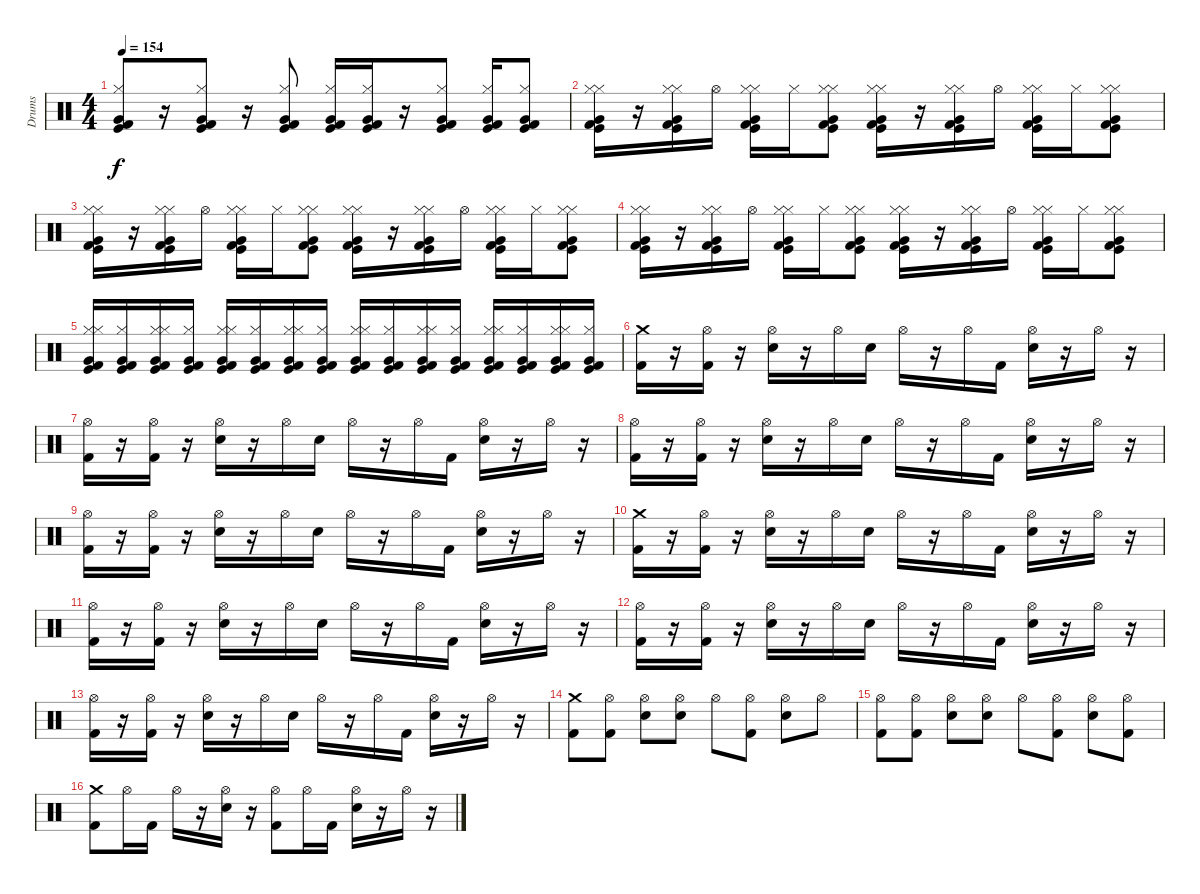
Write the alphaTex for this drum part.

\track ("Drums" "Drums") {instrument percussion}
\staff {score}
\articulation defaults
\ts (4 4)
\tempo 154
\clef neutral
\ks c
("Kick (hit) 2" "Kick (hit)" "Hi-Hat (closed)" "Very Low Tom (hit)").8{dy f} r.16 ("Kick (hit) 2" "Kick (hit)" "Hi-Hat (closed)" "Very Low Tom (hit)").8 r.16 ("Kick (hit) 2" "Kick (hit)" "Hi-Hat (closed)" "Very Low Tom (hit)").8 ("Kick (hit) 2" "Kick (hit)" "Hi-Hat (closed)" "Very Low Tom (hit)").16 ("Kick (hit) 2" "Kick (hit)" "Hi-Hat (closed)" "Very Low Tom (hit)").16 r.16 ("Kick (hit) 2" "Kick (hit)" "Hi-Hat (closed)" "Very Low Tom (hit)").8 ("Kick (hit) 2" "Kick (hit)" "Hi-Hat (closed)" "Very Low Tom (hit)").16 ("Kick (hit) 2" "Kick (hit)" "Hi-Hat (closed)" "Very Low Tom (hit)").8 |
("Kick (hit) 2" "Kick (hit)" "Hi-Hat (closed)" "Very Low Tom (hit)" "Hi-Hat (closed)").16 r.16 ("Kick (hit) 2" "Kick (hit)" "Hi-Hat (closed)" "Very Low Tom (hit)" "Hi-Hat (closed)").16 "Hi-Hat (open)".16 ("Kick (hit) 2" "Kick (hit)" "Hi-Hat (closed)" "Very Low Tom (hit)" "Hi-Hat (closed)").16 "Hi-Hat (closed)".16 ("Kick (hit) 2" "Kick (hit)" "Hi-Hat (closed)" "Very Low Tom (hit)" "Hi-Hat (closed)").8 ("Kick (hit) 2" "Kick (hit)" "Hi-Hat (closed)" "Very Low Tom (hit)" "Hi-Hat (closed)").16 r.16 ("Kick (hit) 2" "Kick (hit)" "Hi-Hat (closed)" "Very Low Tom (hit)" "Hi-Hat (closed)").16 "Hi-Hat (open)".16 ("Kick (hit) 2" "Kick (hit)" "Hi-Hat (closed)" "Very Low Tom (hit)" "Hi-Hat (closed)").16 "Hi-Hat (closed)".16 ("Kick (hit) 2" "Kick (hit)" "Hi-Hat (closed)" "Very Low Tom (hit)" "Hi-Hat (closed)").8 |
("Kick (hit) 2" "Kick (hit)" "Hi-Hat (closed)" "Very Low Tom (hit)" "Hi-Hat (closed)").16 r.16 ("Kick (hit) 2" "Kick (hit)" "Hi-Hat (closed)" "Very Low Tom (hit)" "Hi-Hat (closed)").16 "Hi-Hat (open)".16 ("Kick (hit) 2" "Kick (hit)" "Hi-Hat (closed)" "Very Low Tom (hit)" "Hi-Hat (closed)").16 "Hi-Hat (closed)".16 ("Kick (hit) 2" "Kick (hit)" "Hi-Hat (closed)" "Very Low Tom (hit)" "Hi-Hat (closed)").8 ("Kick (hit) 2" "Kick (hit)" "Hi-Hat (closed)" "Very Low Tom (hit)" "Hi-Hat (closed)").16 r.16 ("Kick (hit) 2" "Kick (hit)" "Hi-Hat (closed)" "Very Low Tom (hit)" "Hi-Hat (closed)").16 "Hi-Hat (open)".16 ("Kick (hit) 2" "Kick (hit)" "Hi-Hat (closed)" "Very Low Tom (hit)" "Hi-Hat (closed)").16 "Hi-Hat (closed)".16 ("Kick (hit) 2" "Kick (hit)" "Hi-Hat (closed)" "Very Low Tom (hit)" "Hi-Hat (closed)").8 |
("Kick (hit) 2" "Kick (hit)" "Hi-Hat (closed)" "Very Low Tom (hit)" "Hi-Hat (closed)").16 r.16 ("Kick (hit) 2" "Kick (hit)" "Hi-Hat (closed)" "Very Low Tom (hit)" "Hi-Hat (closed)").16 "Hi-Hat (open)".16 ("Kick (hit) 2" "Kick (hit)" "Hi-Hat (closed)" "Very Low Tom (hit)" "Hi-Hat (closed)").16 "Hi-Hat (closed)".16 ("Kick (hit) 2" "Kick (hit)" "Hi-Hat (closed)" "Very Low Tom (hit)" "Hi-Hat (closed)").8 ("Kick (hit) 2" "Kick (hit)" "Hi-Hat (closed)" "Very Low Tom (hit)" "Hi-Hat (closed)").16 r.16 ("Kick (hit) 2" "Kick (hit)" "Hi-Hat (closed)" "Very Low Tom (hit)" "Hi-Hat (closed)").16 "Hi-Hat (open)".16 ("Kick (hit) 2" "Kick (hit)" "Hi-Hat (closed)" "Very Low Tom (hit)" "Hi-Hat (closed)").16 "Hi-Hat (closed)".16 ("Kick (hit) 2" "Kick (hit)" "Hi-Hat (closed)" "Very Low Tom (hit)" "Hi-Hat (closed)").8 |
("Kick (hit) 2" "Kick (hit)" "Hi-Hat (closed)" "Very Low Tom (hit)" "Hi-Hat (closed)").16 ("Kick (hit) 2" "Kick (hit)" "Hi-Hat (closed)" "Very Low Tom (hit)").16 ("Kick (hit) 2" "Kick (hit)" "Hi-Hat (closed)" "Very Low Tom (hit)" "Hi-Hat (closed)").16 ("Kick (hit) 2" "Kick (hit)" "Hi-Hat (closed)" "Very Low Tom (hit)").16 ("Kick (hit) 2" "Kick (hit)" "Hi-Hat (closed)" "Very Low Tom (hit)" "Hi-Hat (closed)").16 ("Kick (hit) 2" "Kick (hit)" "Hi-Hat (closed)" "Very Low Tom (hit)").16 ("Kick (hit) 2" "Kick (hit)" "Hi-Hat (closed)" "Very Low Tom (hit)" "Hi-Hat (closed)").16 ("Kick (hit) 2" "Kick (hit)" "Hi-Hat (closed)" "Very Low Tom (hit)").16 ("Kick (hit) 2" "Kick (hit)" "Hi-Hat (closed)" "Very Low Tom (hit)" "Hi-Hat (closed)").16 ("Kick (hit) 2" "Kick (hit)" "Hi-Hat (closed)" "Very Low Tom (hit)").16 ("Kick (hit) 2" "Kick (hit)" "Hi-Hat (closed)" "Very Low Tom (hit)" "Hi-Hat (closed)").16 ("Kick (hit) 2" "Kick (hit)" "Hi-Hat (closed)" "Very Low Tom (hit)").16 ("Kick (hit) 2" "Kick (hit)" "Hi-Hat (closed)" "Very Low Tom (hit)" "Hi-Hat (closed)").16 ("Kick (hit) 2" "Kick (hit)" "Hi-Hat (closed)" "Very Low Tom (hit)").16 ("Kick (hit) 2" "Kick (hit)" "Hi-Hat (closed)" "Very Low Tom (hit)" "Hi-Hat (closed)").16 ("Kick (hit) 2" "Kick (hit)" "Hi-Hat (closed)" "Very Low Tom (hit)").16 |
("Kick (hit) 2" "Crash medium (hit)").16 r.16 ("Kick (hit) 2" "Hi-Hat (open)").16 r.16 ("Electric Snare (hit)" "Hi-Hat (open)").16 r.16 "Hi-Hat (open)".16 "Electric Snare (hit)".16 "Hi-Hat (open)".16 r.16 "Hi-Hat (open)".16 "Kick (hit) 2".16 ("Electric Snare (hit)" "Hi-Hat (open)").16 r.16 "Hi-Hat (open)".16 r.16 |
("Kick (hit) 2" "Hi-Hat (open)").16 r.16 ("Kick (hit) 2" "Hi-Hat (open)").16 r.16 ("Electric Snare (hit)" "Hi-Hat (open)").16 r.16 "Hi-Hat (open)".16 "Electric Snare (hit)".16 "Hi-Hat (open)".16 r.16 "Hi-Hat (open)".16 "Kick (hit) 2".16 ("Electric Snare (hit)" "Hi-Hat (open)").16 r.16 "Hi-Hat (open)".16 r.16 |
("Kick (hit) 2" "Hi-Hat (open)").16 r.16 ("Kick (hit) 2" "Hi-Hat (open)").16 r.16 ("Electric Snare (hit)" "Hi-Hat (open)").16 r.16 "Hi-Hat (open)".16 "Electric Snare (hit)".16 "Hi-Hat (open)".16 r.16 "Hi-Hat (open)".16 "Kick (hit) 2".16 ("Electric Snare (hit)" "Hi-Hat (open)").16 r.16 "Hi-Hat (open)".16 r.16 |
("Kick (hit) 2" "Hi-Hat (open)").16 r.16 ("Kick (hit) 2" "Hi-Hat (open)").16 r.16 ("Electric Snare (hit)" "Hi-Hat (open)").16 r.16 "Hi-Hat (open)".16 "Electric Snare (hit)".16 "Hi-Hat (open)".16 r.16 "Hi-Hat (open)".16 "Kick (hit) 2".16 ("Electric Snare (hit)" "Hi-Hat (open)").16 r.16 "Hi-Hat (open)".16 r.16 |
("Kick (hit) 2" "Crash medium (hit)").16 r.16 ("Kick (hit) 2" "Hi-Hat (open)").16 r.16 ("Electric Snare (hit)" "Hi-Hat (open)").16 r.16 "Hi-Hat (open)".16 "Electric Snare (hit)".16 "Hi-Hat (open)".16 r.16 "Hi-Hat (open)".16 "Kick (hit) 2".16 ("Electric Snare (hit)" "Hi-Hat (open)").16 r.16 "Hi-Hat (open)".16 r.16 |
("Kick (hit) 2" "Hi-Hat (open)").16 r.16 ("Kick (hit) 2" "Hi-Hat (open)").16 r.16 ("Electric Snare (hit)" "Hi-Hat (open)").16 r.16 "Hi-Hat (open)".16 "Electric Snare (hit)".16 "Hi-Hat (open)".16 r.16 "Hi-Hat (open)".16 "Kick (hit) 2".16 ("Electric Snare (hit)" "Hi-Hat (open)").16 r.16 "Hi-Hat (open)".16 r.16 |
("Kick (hit) 2" "Hi-Hat (open)").16 r.16 ("Kick (hit) 2" "Hi-Hat (open)").16 r.16 ("Electric Snare (hit)" "Hi-Hat (open)").16 r.16 "Hi-Hat (open)".16 "Electric Snare (hit)".16 "Hi-Hat (open)".16 r.16 "Hi-Hat (open)".16 "Kick (hit) 2".16 ("Electric Snare (hit)" "Hi-Hat (open)").16 r.16 "Hi-Hat (open)".16 r.16 |
("Kick (hit) 2" "Hi-Hat (open)").16 r.16 ("Kick (hit) 2" "Hi-Hat (open)").16 r.16 ("Electric Snare (hit)" "Hi-Hat (open)").16 r.16 "Hi-Hat (open)".16 "Electric Snare (hit)".16 "Hi-Hat (open)".16 r.16 "Hi-Hat (open)".16 "Kick (hit) 2".16 ("Electric Snare (hit)" "Hi-Hat (open)").16 r.16 "Hi-Hat (open)".16 r.16 |
("Kick (hit) 2" "Crash medium (hit)").8 ("Kick (hit) 2" "Hi-Hat (open)").8 ("Electric Snare (hit)" "Hi-Hat (open)").8 ("Electric Snare (hit)" "Hi-Hat (open)").8 "Hi-Hat (open)".8 ("Kick (hit) 2" "Hi-Hat (open)").8 ("Electric Snare (hit)" "Hi-Hat (open)").8 "Hi-Hat (open)".8 |
("Kick (hit) 2" "Hi-Hat (open)").8 ("Kick (hit) 2" "Hi-Hat (open)").8 ("Electric Snare (hit)" "Hi-Hat (open)").8 ("Electric Snare (hit)" "Hi-Hat (open)").8 "Hi-Hat (open)".8 ("Kick (hit) 2" "Hi-Hat (open)").8 ("Electric Snare (hit)" "Hi-Hat (open)").8 ("Kick (hit) 2" "Hi-Hat (open)").8 |
("Kick (hit) 2" "Crash medium (hit)").8 "Hi-Hat (open)".16 "Kick (hit) 2".16 "Hi-Hat (open)".16 r.16 ("Electric Snare (hit)" "Hi-Hat (open)").16 r.16 ("Kick (hit) 2" "Hi-Hat (open)").8 "Hi-Hat (open)".16 "Kick (hit) 2".16 ("Electric Snare (hit)" "Hi-Hat (open)").16 r.16 "Hi-Hat (open)".16 r.16
